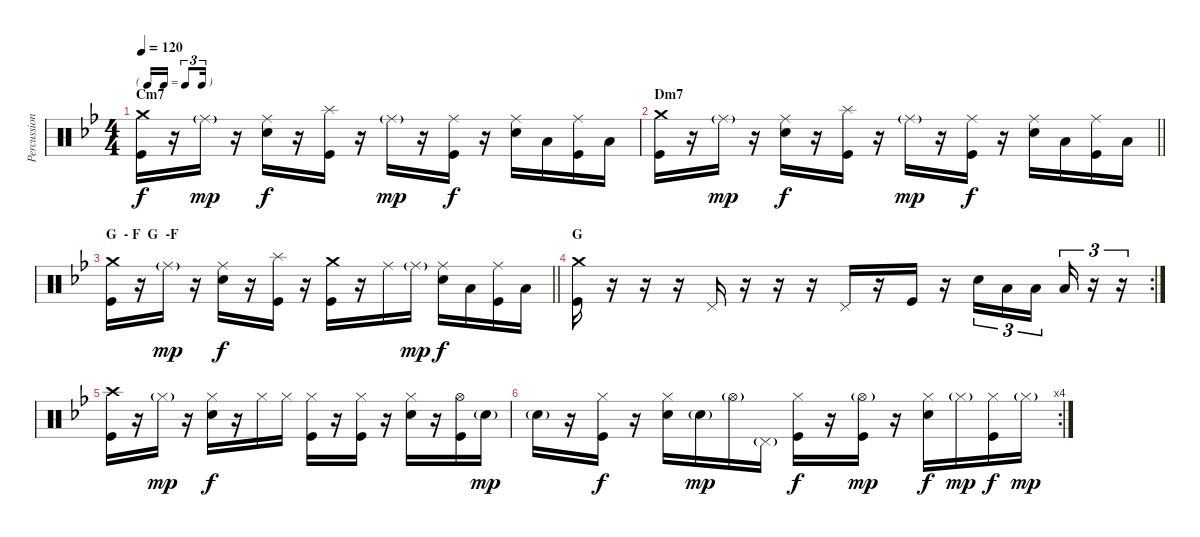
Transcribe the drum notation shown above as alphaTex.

\track ("Percussion" "Percussion") {instrument percussion}
\staff {score}
\articulation defaults
\ts (4 4)
\tf triplet16th
\section ("" "Cm7")
\tempo 120
\clef neutral
\ks bb
("Crash medium (hit)" "Kick (hit)").16{dy f} r.16 "Ride (middle)"{g}.16{dy mp} r.16 ("Ride (middle)" "Electric Snare (hit)").16{dy f} r.16 ("Splash (hit)" "Kick (hit)").16 r.16 "Ride (middle)"{g}.16{dy mp} r.16 ("Ride (middle)" "Kick (hit)").16{dy f} r.16 ("Ride (middle)" "Electric Snare (hit)").16 "Low Tom (hit)".16 ("Ride (middle)" "Kick (hit)").16 "Low Tom (hit)".16 |
\section ("" "Dm7")
\barLineRight lightlight
("Crash medium (hit)" "Kick (hit)").16 r.16 "Ride (middle)"{g}.16{dy mp} r.16 ("Ride (middle)" "Electric Snare (hit)").16{dy f} r.16 ("Splash (hit)" "Kick (hit)").16 r.16 "Ride (middle)"{g}.16{dy mp} r.16 ("Ride (middle)" "Kick (hit)").16{dy f} r.16 ("Ride (middle)" "Electric Snare (hit)").16 "Low Tom (hit)".16 ("Ride (middle)" "Kick (hit)").16 "Low Tom (hit)".16 |
\section ("" "G  - F  G  -F")
\barLineRight lightlight
("Crash medium (hit)" "Kick (hit)").16 r.16 "Ride (middle)"{g}.16{dy mp} r.16 ("Ride (middle)" "Electric Snare (hit)").16{dy f} r.16 ("Splash (hit)" "Kick (hit)").16 r.16 ("Crash medium (hit)" "Kick (hit)").16 r.16 "Ride (middle)".16 "Ride (middle)"{g}.16{dy mp} ("Ride (middle)" "Electric Snare (hit)").16{dy f} "Low Tom (hit)".16 ("Ride (middle)" "Kick (hit)").16 "Low Tom (hit)".16 |
\rc 2
\section ("" "G")
("Crash medium (hit)" "Kick (hit)").16 r.16 r.16 r.16 "Pedal Hi-Hat (hit)".16 r.16 r.16 r.16 "Pedal Hi-Hat (hit)".16 r.16 "Kick (hit)".16 r.16 "Electric Snare (hit)".16{tu (3 2)} "Low Tom (hit)".16{tu (3 2)} "Low Floor Tom (hit)".16{tu (3 2) beam splitsecondary} "Low Floor Tom (hit)".16{tu (3 2)} r.16{tu (3 2)} r.16{tu (3 2)} |
("Crash high (hit)" "Kick (hit)").16 r.16 "Hi-Hat (closed)"{g}.16{dy mp} r.16 ("Hi-Hat (closed)" "Electric Snare (hit)").16{dy f} r.16 "Hi-Hat (closed)".16 "Hi-Hat (closed)".16 ("Hi-Hat (closed)" "Kick (hit)").16 r.16 ("Hi-Hat (closed)" "Kick (hit)").16 r.16 ("Hi-Hat (closed)" "Electric Snare (hit)").16 r.16 ("Hi-Hat (open)" "Kick (hit)").16 "Electric Snare (hit)"{g}.16{dy mp} |
\rc 4 "Electric Snare (hit)"{g}.16
r.16 ("Hi-Hat (closed)" "Kick (hit)").16{dy f} r.16 ("Hi-Hat (closed)" "Electric Snare (hit)").16 "Electric Snare (hit)"{g}.16{dy mp} "Hi-Hat (open)"{g}.16 "Pedal Hi-Hat (hit)"{g}.16 ("Hi-Hat (closed)" "Kick (hit)").16{dy f} r.16 ("Hi-Hat (open)"{g} "Kick (hit)").16{dy mp} r.16 ("Hi-Hat (closed)" "Electric Snare (hit)").16{dy f} "Hi-Hat (closed)"{g}.16{dy mp} ("Hi-Hat (closed)" "Kick (hit)").16{dy f} "Hi-Hat (closed)"{g}.16{dy mp}
